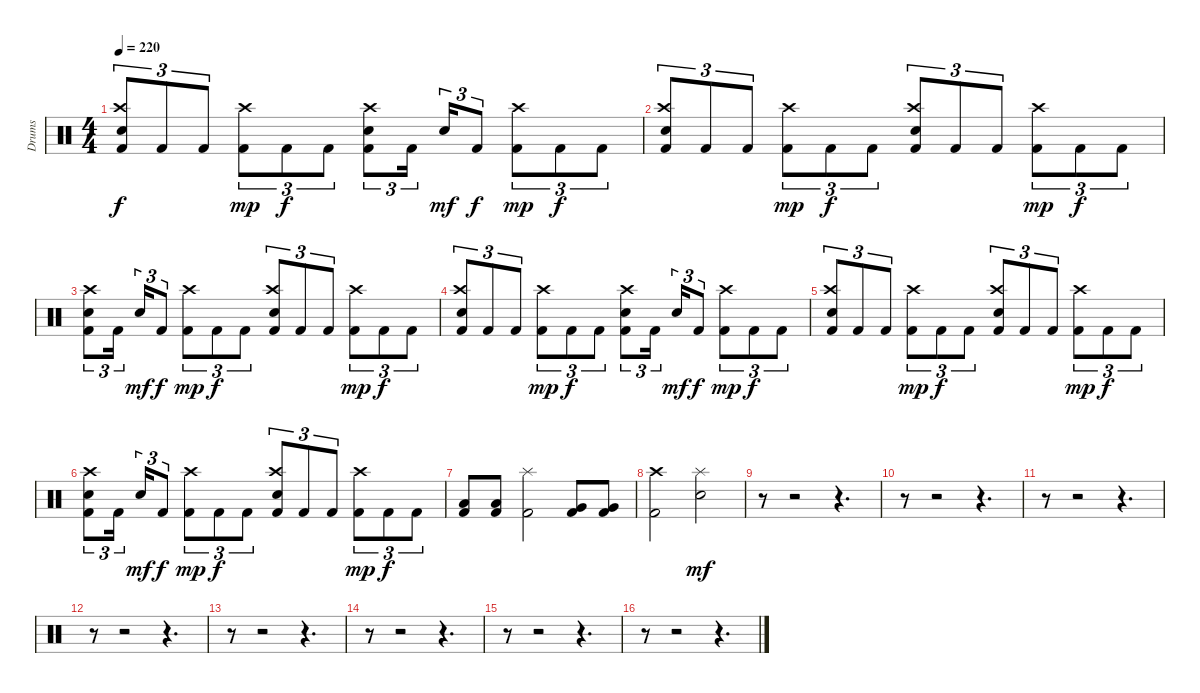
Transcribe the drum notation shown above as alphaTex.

\bracketExtendMode groupsimilarinstruments
\otherSystemsTrackNameOrientation horizontal
\track ("Drumkit" "Drums") {instrument percussion}
\staff {score}
\articulation defaults
\ts (4 4)
\tempo 220
\clef neutral
\ks c
("Crash high (hit)" "Snare (hit) 2" "Kick (hit) 2").8{tu (3 2) dy f beam Up} "Kick (hit) 2".8{tu (3 2) beam Up} "Kick (hit) 2".8{tu (3 2) beam Up} ("Crash high (hit)" "Kick (hit) 2").8{tu (3 2) dy mp beam Down} "Kick (hit) 2".8{tu (3 2) dy f beam Down} "Kick (hit) 2".8{tu (3 2) beam Down} ("Crash high (hit)" "Snare (hit) 2" "Kick (hit) 2").8{tu (3 2) beam Down} "Kick (hit) 2".16{tu (3 2) beam Down} "Snare (hit) 2".16{tu (3 2) dy mf beam Up} "Kick (hit) 2".8{tu (3 2) dy f beam Up} ("Crash high (hit)" "Kick (hit) 2").8{tu (3 2) dy mp beam Down} "Kick (hit) 2".8{tu (3 2) dy f beam Down} "Kick (hit) 2".8{tu (3 2) beam Down} |
("Crash high (hit)" "Snare (hit) 2" "Kick (hit) 2").8{tu (3 2) beam Up} "Kick (hit) 2".8{tu (3 2) beam Up} "Kick (hit) 2".8{tu (3 2) beam Up} ("Crash high (hit)" "Kick (hit) 2").8{tu (3 2) dy mp beam Down} "Kick (hit) 2".8{tu (3 2) dy f beam Down} "Kick (hit) 2".8{tu (3 2) beam Down} ("Crash high (hit)" "Snare (hit) 2" "Kick (hit) 2").8{tu (3 2) beam Up} "Kick (hit) 2".8{tu (3 2) beam Up} "Kick (hit) 2".8{tu (3 2) beam Up} ("Crash high (hit)" "Kick (hit) 2").8{tu (3 2) dy mp beam Down} "Kick (hit) 2".8{tu (3 2) dy f beam Down} "Kick (hit) 2".8{tu (3 2) beam Down} |
("Crash high (hit)" "Snare (hit) 2" "Kick (hit) 2").8{tu (3 2) beam Down} "Kick (hit) 2".16{tu (3 2) beam Down} "Snare (hit) 2".16{tu (3 2) dy mf beam Up} "Kick (hit) 2".8{tu (3 2) dy f beam Up} ("Crash high (hit)" "Kick (hit) 2").8{tu (3 2) dy mp beam Down} "Kick (hit) 2".8{tu (3 2) dy f beam Down} "Kick (hit) 2".8{tu (3 2) beam Down} ("Crash high (hit)" "Snare (hit) 2" "Kick (hit) 2").8{tu (3 2) beam Up} "Kick (hit) 2".8{tu (3 2) beam Up} "Kick (hit) 2".8{tu (3 2) beam Up} ("Crash high (hit)" "Kick (hit) 2").8{tu (3 2) dy mp beam Down} "Kick (hit) 2".8{tu (3 2) dy f beam Down} "Kick (hit) 2".8{tu (3 2) beam Down} |
("Crash high (hit)" "Snare (hit) 2" "Kick (hit) 2").8{tu (3 2) beam Up} "Kick (hit) 2".8{tu (3 2) beam Up} "Kick (hit) 2".8{tu (3 2) beam Up} ("Crash high (hit)" "Kick (hit) 2").8{tu (3 2) dy mp beam Down} "Kick (hit) 2".8{tu (3 2) dy f beam Down} "Kick (hit) 2".8{tu (3 2) beam Down} ("Crash high (hit)" "Snare (hit) 2" "Kick (hit) 2").8{tu (3 2) beam Down} "Kick (hit) 2".16{tu (3 2) beam Down} "Snare (hit) 2".16{tu (3 2) dy mf beam Up} "Kick (hit) 2".8{tu (3 2) dy f beam Up} ("Crash high (hit)" "Kick (hit) 2").8{tu (3 2) dy mp beam Down} "Kick (hit) 2".8{tu (3 2) dy f beam Down} "Kick (hit) 2".8{tu (3 2) beam Down} |
("Crash high (hit)" "Snare (hit) 2" "Kick (hit) 2").8{tu (3 2) beam Up} "Kick (hit) 2".8{tu (3 2) beam Up} "Kick (hit) 2".8{tu (3 2) beam Up} ("Crash high (hit)" "Kick (hit) 2").8{tu (3 2) dy mp beam Down} "Kick (hit) 2".8{tu (3 2) dy f beam Down} "Kick (hit) 2".8{tu (3 2) beam Down} ("Crash high (hit)" "Snare (hit) 2" "Kick (hit) 2").8{tu (3 2) beam Up} "Kick (hit) 2".8{tu (3 2) beam Up} "Kick (hit) 2".8{tu (3 2) beam Up} ("Crash high (hit)" "Kick (hit) 2").8{tu (3 2) dy mp beam Down} "Kick (hit) 2".8{tu (3 2) dy f beam Down} "Kick (hit) 2".8{tu (3 2) beam Down} |
("Crash high (hit)" "Snare (hit) 2" "Kick (hit) 2").8{tu (3 2) beam Down} "Kick (hit) 2".16{tu (3 2) beam Down} "Snare (hit) 2".16{tu (3 2) dy mf beam Up} "Kick (hit) 2".8{tu (3 2) dy f beam Up} ("Crash high (hit)" "Kick (hit) 2").8{tu (3 2) dy mp beam Down} "Kick (hit) 2".8{tu (3 2) dy f beam Down} "Kick (hit) 2".8{tu (3 2) beam Down} ("Crash high (hit)" "Snare (hit) 2" "Kick (hit) 2").8{tu (3 2) beam Up} "Kick (hit) 2".8{tu (3 2) beam Up} "Kick (hit) 2".8{tu (3 2) beam Up} ("Crash high (hit)" "Kick (hit) 2").8{tu (3 2) dy mp beam Down} "Kick (hit) 2".8{tu (3 2) dy f beam Down} "Kick (hit) 2".8{tu (3 2) beam Down} |
("Low Tom (hit)" "Kick (hit) 2").8{beam Up} ("Low Tom (hit)" "Kick (hit) 2").8{beam Up} ("Splash (hit)" "Kick (hit) 2").2{beam Down} ("Very Low Tom (hit)" "Kick (hit) 2").8{beam Up} ("Very Low Tom (hit)" "Kick (hit) 2").8{beam Up} |
("Crash high (hit)" "Kick (hit) 2").2{beam Down} ("Splash (hit)" "Snare (hit) 2").2{dy mf beam Down} |
r.8{beam Down} r.2{beam Down} r.4{d beam Down} |
r.8{beam Down} r.2{beam Down} r.4{d beam Down} |
r.8{beam Down} r.2{beam Down} r.4{d beam Down} |
r.8{beam Down} r.2{beam Down} r.4{d beam Down} |
r.8{beam Down} r.2{beam Down} r.4{d beam Down} |
r.8{beam Down} r.2{beam Down} r.4{d beam Down} |
r.8{beam Down} r.2{beam Down} r.4{d beam Down} |
r.8{beam Down} r.2{beam Down} r.4{d beam Down}
